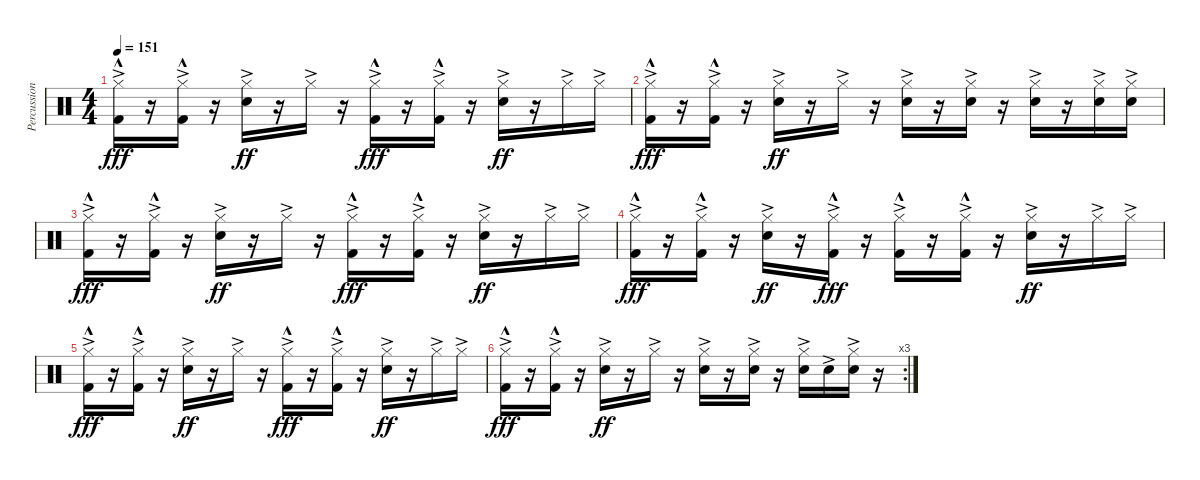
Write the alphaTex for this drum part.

\track ("Percussion" "Percussion") {instrument percussion}
\staff {score}
\articulation defaults
\ts (4 4)
\tempo 151
\clef neutral
\ks c
("Hi-Hat (closed)"{ac} "Kick (hit) 2"{hac}).16{dy fff} r.16 ("Hi-Hat (closed)"{ac} "Kick (hit) 2"{hac}).16 r.16 ("Hi-Hat (closed)"{ac} "Snare (hit) 2"{ac}).16{dy ff} r.16 "Hi-Hat (closed)"{ac}.16 r.16 ("Hi-Hat (closed)"{ac} "Kick (hit) 2"{hac}).16{dy fff} r.16 ("Hi-Hat (closed)"{ac} "Kick (hit) 2"{hac}).16 r.16 ("Hi-Hat (closed)"{ac} "Snare (hit) 2"{ac}).16{dy ff} r.16 "Hi-Hat (closed)"{ac}.16 "Hi-Hat (closed)"{ac}.16 |
("Hi-Hat (closed)"{ac} "Kick (hit) 2"{hac}).16{dy fff} r.16 ("Hi-Hat (closed)"{ac} "Kick (hit) 2"{hac}).16 r.16 ("Hi-Hat (closed)"{ac} "Snare (hit) 2"{ac}).16{dy ff} r.16 "Hi-Hat (closed)"{ac}.16 r.16 ("Hi-Hat (closed)"{ac} "Snare (hit) 2"{ac}).16 r.16 ("Hi-Hat (closed)"{ac} "Snare (hit) 2"{ac}).16 r.16 ("Hi-Hat (closed)"{ac} "Snare (hit) 2"{ac}).16 r.16 ("Hi-Hat (closed)"{ac} "Snare (hit) 2"{ac}).16 ("Hi-Hat (closed)"{ac} "Snare (hit) 2"{ac}).16 |
("Hi-Hat (closed)"{ac} "Kick (hit) 2"{hac}).16{dy fff} r.16 ("Hi-Hat (closed)"{ac} "Kick (hit) 2"{hac}).16 r.16 ("Hi-Hat (closed)"{ac} "Snare (hit) 2"{ac}).16{dy ff} r.16 "Hi-Hat (closed)"{ac}.16 r.16 ("Hi-Hat (closed)"{ac} "Kick (hit) 2"{hac}).16{dy fff} r.16 ("Hi-Hat (closed)"{ac} "Kick (hit) 2"{hac}).16 r.16 ("Hi-Hat (closed)"{ac} "Snare (hit) 2"{ac}).16{dy ff} r.16 "Hi-Hat (closed)"{ac}.16 "Hi-Hat (closed)"{ac}.16 |
("Hi-Hat (closed)"{ac} "Kick (hit) 2"{hac}).16{dy fff} r.16 ("Hi-Hat (closed)"{ac} "Kick (hit) 2"{hac}).16 r.16 ("Hi-Hat (closed)"{ac} "Snare (hit) 2"{ac}).16{dy ff} r.16 ("Hi-Hat (closed)"{ac} "Kick (hit) 2"{hac}).16{dy fff} r.16 ("Hi-Hat (closed)"{ac} "Kick (hit) 2"{hac}).16 r.16 ("Hi-Hat (closed)"{ac} "Kick (hit) 2"{hac}).16 r.16 ("Hi-Hat (closed)"{ac} "Snare (hit) 2"{ac}).16{dy ff} r.16 "Hi-Hat (closed)"{ac}.16 "Hi-Hat (closed)"{ac}.16 |
("Hi-Hat (closed)"{ac} "Kick (hit) 2"{hac}).16{dy fff} r.16 ("Hi-Hat (closed)"{ac} "Kick (hit) 2"{hac}).16 r.16 ("Hi-Hat (closed)"{ac} "Snare (hit) 2"{ac}).16{dy ff} r.16 "Hi-Hat (closed)"{ac}.16 r.16 ("Hi-Hat (closed)"{ac} "Kick (hit) 2"{hac}).16{dy fff} r.16 ("Hi-Hat (closed)"{ac} "Kick (hit) 2"{hac}).16 r.16 ("Hi-Hat (closed)"{ac} "Snare (hit) 2"{ac}).16{dy ff} r.16 "Hi-Hat (closed)"{ac}.16 "Hi-Hat (closed)"{ac}.16 |
\rc 3
("Hi-Hat (closed)"{ac} "Kick (hit) 2"{hac}).16{dy fff} r.16 ("Hi-Hat (closed)"{ac} "Kick (hit) 2"{hac}).16 r.16 ("Hi-Hat (closed)"{ac} "Snare (hit) 2"{ac}).16{dy ff} r.16 "Hi-Hat (closed)"{ac}.16 r.16 ("Hi-Hat (closed)"{ac} "Snare (hit) 2"{ac}).16 r.16 ("Hi-Hat (closed)"{ac} "Snare (hit) 2"{ac}).16 r.16 ("Hi-Hat (closed)"{ac} "Snare (hit) 2"{ac}).16 "Snare (hit) 2"{ac}.16 ("Hi-Hat (closed)"{ac} "Snare (hit) 2"{ac}).16 r.16
